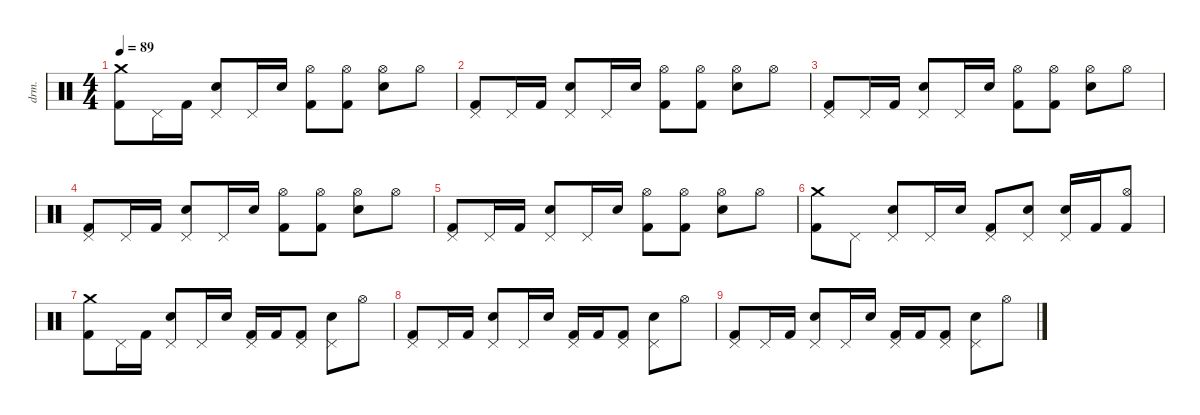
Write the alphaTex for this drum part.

\defaultSystemsLayout 4
\hideDynamics
\bracketExtendMode nobrackets
\otherSystemsTrackNameOrientation horizontal
\track ("Drumkit" "drm.") {instrument percussion}
\staff {score}
\articulation defaults
\ts (4 4)
\tempo 89
\clef neutral
\ks c
("Crash medium (hit)" "Kick (hit) 2").8{dy f beam Down} "Pedal Hi-Hat (hit)".16{beam Down} "Kick (hit) 2".16{beam Down} ("Pedal Hi-Hat (hit)" "Snare (hit) 2").8{beam Up} "Pedal Hi-Hat (hit)".16{beam Up} "Snare (hit) 2".16{beam Up} ("Hi-Hat (open)" "Kick (hit) 2").8{beam Down} ("Hi-Hat (open)" "Kick (hit) 2").8{beam Down} ("Hi-Hat (open)" "Snare (hit) 2").8{beam Down} "Hi-Hat (open)".8{beam Down} |
("Pedal Hi-Hat (hit)" "Kick (hit) 2").8{beam Up} "Pedal Hi-Hat (hit)".16{beam Up} "Kick (hit) 2".16{beam Up} ("Pedal Hi-Hat (hit)" "Snare (hit) 2").8{beam Up} "Pedal Hi-Hat (hit)".16{beam Up} "Snare (hit) 2".16{beam Up} ("Hi-Hat (open)" "Kick (hit) 2").8{beam Down} ("Hi-Hat (open)" "Kick (hit) 2").8{beam Down} ("Hi-Hat (open)" "Snare (hit) 2").8{beam Down} "Hi-Hat (open)".8{beam Down} |
("Pedal Hi-Hat (hit)" "Kick (hit) 2").8{beam Up} "Pedal Hi-Hat (hit)".16{beam Up} "Kick (hit) 2".16{beam Up} ("Pedal Hi-Hat (hit)" "Snare (hit) 2").8{beam Up} "Pedal Hi-Hat (hit)".16{beam Up} "Snare (hit) 2".16{beam Up} ("Hi-Hat (open)" "Kick (hit) 2").8{beam Down} ("Hi-Hat (open)" "Kick (hit) 2").8{beam Down} ("Hi-Hat (open)" "Snare (hit) 2").8{beam Down} "Hi-Hat (open)".8{beam Down} |
("Pedal Hi-Hat (hit)" "Kick (hit) 2").8{beam Up} "Pedal Hi-Hat (hit)".16{beam Up} "Kick (hit) 2".16{beam Up} ("Pedal Hi-Hat (hit)" "Snare (hit) 2").8{beam Up} "Pedal Hi-Hat (hit)".16{beam Up} "Snare (hit) 2".16{beam Up} ("Hi-Hat (open)" "Kick (hit) 2").8{beam Down} ("Hi-Hat (open)" "Kick (hit) 2").8{beam Down} ("Hi-Hat (open)" "Snare (hit) 2").8{beam Down} "Hi-Hat (open)".8{beam Down} |
("Pedal Hi-Hat (hit)" "Kick (hit) 2").8{beam Up} "Pedal Hi-Hat (hit)".16{beam Up} "Kick (hit) 2".16{beam Up} ("Pedal Hi-Hat (hit)" "Snare (hit) 2").8{beam Up} "Pedal Hi-Hat (hit)".16{beam Up} "Snare (hit) 2".16{beam Up} ("Hi-Hat (open)" "Kick (hit) 2").8{beam Down} ("Hi-Hat (open)" "Kick (hit) 2").8{beam Down} ("Hi-Hat (open)" "Snare (hit) 2").8{beam Down} "Hi-Hat (open)".8{beam Down} |
("Crash medium (hit)" "Kick (hit) 2").8{beam Down} "Pedal Hi-Hat (hit)".8{beam Down} ("Pedal Hi-Hat (hit)" "Snare (hit) 2").8{beam Up} "Pedal Hi-Hat (hit)".16{beam Up} "Snare (hit) 2".16{beam Up} ("Pedal Hi-Hat (hit)" "Kick (hit) 2").8{beam Up} ("Pedal Hi-Hat (hit)" "Snare (hit) 2").8{beam Up} ("Pedal Hi-Hat (hit)" "Snare (hit) 2").16{beam Up} "Kick (hit) 2".16{beam Up} ("Hi-Hat (open)" "Kick (hit) 2").8{beam Up} |
("Crash medium (hit)" "Kick (hit) 2").8{beam Down} "Pedal Hi-Hat (hit)".16{beam Down} "Kick (hit) 2".16{beam Down} ("Pedal Hi-Hat (hit)" "Snare (hit) 2").8{beam Up} "Pedal Hi-Hat (hit)".16{beam Up} "Snare (hit) 2".16{beam Up} ("Pedal Hi-Hat (hit)" "Kick (hit) 2").16{beam Up} "Kick (hit) 2".16{beam Up} ("Pedal Hi-Hat (hit)" "Kick (hit) 2").8{beam Up} ("Pedal Hi-Hat (hit)" "Snare (hit) 2").8{beam Down} "Hi-Hat (open)".8{beam Down} |
("Pedal Hi-Hat (hit)" "Kick (hit) 2").8{beam Up} "Pedal Hi-Hat (hit)".16{beam Up} "Kick (hit) 2".16{beam Up} ("Pedal Hi-Hat (hit)" "Snare (hit) 2").8{beam Up} "Pedal Hi-Hat (hit)".16{beam Up} "Snare (hit) 2".16{beam Up} ("Pedal Hi-Hat (hit)" "Kick (hit) 2").16{beam Up} "Kick (hit) 2".16{beam Up} ("Pedal Hi-Hat (hit)" "Kick (hit) 2").8{beam Up} ("Pedal Hi-Hat (hit)" "Snare (hit) 2").8{beam Down} "Hi-Hat (open)".8{beam Down} |
("Pedal Hi-Hat (hit)" "Kick (hit) 2").8{beam Up} "Pedal Hi-Hat (hit)".16{beam Up} "Kick (hit) 2".16{beam Up} ("Pedal Hi-Hat (hit)" "Snare (hit) 2").8{beam Up} "Pedal Hi-Hat (hit)".16{beam Up} "Snare (hit) 2".16{beam Up} ("Pedal Hi-Hat (hit)" "Kick (hit) 2").16{beam Up} "Kick (hit) 2".16{beam Up} ("Pedal Hi-Hat (hit)" "Kick (hit) 2").8{beam Up} ("Pedal Hi-Hat (hit)" "Snare (hit) 2").8{beam Down} "Hi-Hat (open)".8{beam Down}
